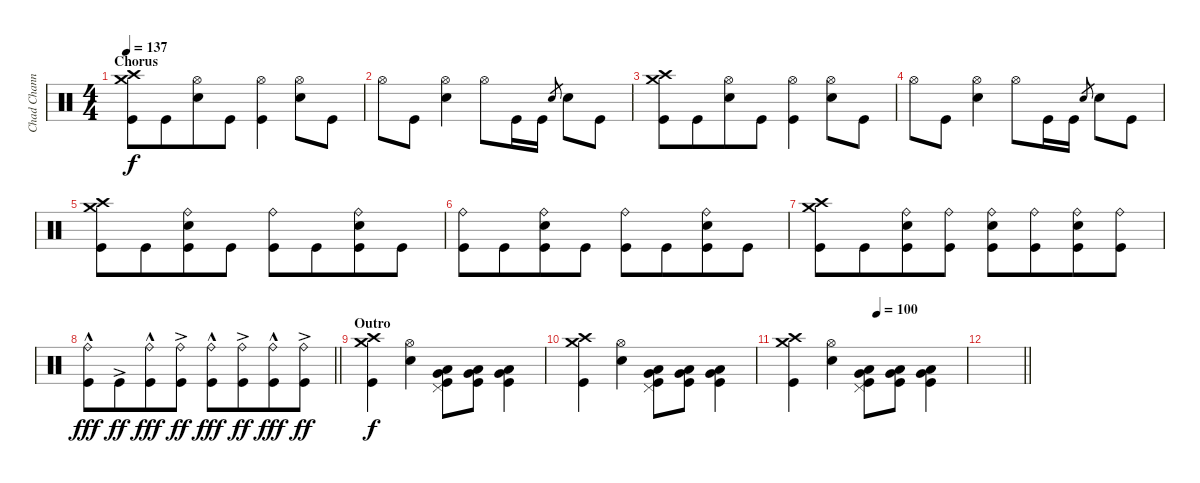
\track ("Chad Channing" "Chad Chann") {instrument percussion}
\staff {score}
\articulation defaults
\ts (4 4)
\section ("" "Chorus")
\tempo 137
\clef neutral
\ks c
("Crash high (hit)" "Crash medium (hit)" "Kick (hit)").8{dy f} "Kick (hit)".8{beam merge} ("Hi-Hat (open)" "Snare (hit) 2").8 "Kick (hit)".8 ("Hi-Hat (open)" "Kick (hit)").4 ("Hi-Hat (open)" "Snare (hit) 2").8 "Kick (hit)".8 |
"Hi-Hat (open)".8 "Kick (hit)".8 ("Hi-Hat (open)" "Snare (hit) 2").4 "Hi-Hat (open)".8 "Kick (hit)".16 "Kick (hit)".16 "Snare (hit) 2".8{gr} "Snare (hit) 2".8{beam Down} "Kick (hit)".8{beam Down} |
("Crash high (hit)" "Crash medium (hit)" "Kick (hit)").8 "Kick (hit)".8{beam merge} ("Hi-Hat (open)" "Snare (hit) 2").8 "Kick (hit)".8 ("Hi-Hat (open)" "Kick (hit)").4 ("Hi-Hat (open)" "Snare (hit) 2").8 "Kick (hit)".8 |
"Hi-Hat (open)".8 "Kick (hit)".8 ("Hi-Hat (open)" "Snare (hit) 2").4 "Hi-Hat (open)".8 "Kick (hit)".16 "Kick (hit)".16 "Snare (hit) 2".8{gr} "Snare (hit) 2".8{beam Down} "Kick (hit)".8{beam Down} |
("Crash medium (hit)" "Crash high (hit)" "Kick (hit)").8 "Kick (hit)".8{beam merge} ("Ride (bell)" "Snare (hit) 2" "Kick (hit)").8 "Kick (hit)".8 ("Ride (bell)" "Kick (hit)").8 "Kick (hit)".8{beam merge} ("Ride (bell)" "Snare (hit) 2" "Kick (hit)").8 "Kick (hit)".8 |
("Ride (bell)" "Kick (hit)").8 "Kick (hit)".8{beam merge} ("Ride (bell)" "Snare (hit) 2" "Kick (hit)").8 "Kick (hit)".8 ("Ride (bell)" "Kick (hit)").8 "Kick (hit)".8{beam merge} ("Ride (bell)" "Snare (hit) 2" "Kick (hit)").8 "Kick (hit)".8 |
("Crash medium (hit)" "Crash high (hit)" "Kick (hit)").8 "Kick (hit)".8{beam merge} ("Ride (bell)" "Snare (hit) 2" "Kick (hit)").8 ("Ride (bell)" "Kick (hit)").8 ("Ride (bell)" "Snare (hit) 2" "Kick (hit)").8 ("Ride (bell)" "Kick (hit)").8{beam merge} ("Ride (bell)" "Snare (hit) 2" "Kick (hit)").8 ("Ride (bell)" "Kick (hit)").8 |
\barLineRight lightlight
("Ride (bell)" "Kick (hit)"{hac}).8{dy fff} "Kick (hit)"{ac}.8{dy ff beam merge} ("Ride (bell)" "Kick (hit)"{hac}).8{dy fff} ("Ride (bell)" "Kick (hit)"{ac}).8{dy ff} ("Ride (bell)" "Kick (hit)"{hac}).8{dy fff} ("Ride (bell)" "Kick (hit)"{ac}).8{dy ff beam merge} ("Ride (bell)" "Kick (hit)"{hac}).8{dy fff} ("Ride (bell)" "Kick (hit)"{ac}).8{dy ff} |
\section ("" "Outro")
("Crash medium (hit)" "Crash high (hit)" "Kick (hit)").4{dy f} ("Hi-Hat (open)" "Snare (hit) 2").4 ("Pedal Hi-Hat (hit)" "Very Low Tom (hit)" "Low Floor Tom (hit)" "Kick (hit)").8{beam Down} ("Very Low Tom (hit)" "Low Floor Tom (hit)" "Kick (hit)").8{beam Down} ("Very Low Tom (hit)" "Low Floor Tom (hit)" "Kick (hit)").4{beam Down} |
("Crash medium (hit)" "Crash high (hit)" "Kick (hit)").4 ("Hi-Hat (open)" "Snare (hit) 2").4 ("Pedal Hi-Hat (hit)" "Very Low Tom (hit)" "Low Floor Tom (hit)" "Kick (hit)").8{beam Down} ("Very Low Tom (hit)" "Low Floor Tom (hit)" "Kick (hit)").8{beam Down} ("Very Low Tom (hit)" "Low Floor Tom (hit)" "Kick (hit)").4{beam Down} |
\tempo (100 0.5)
("Crash medium (hit)" "Crash high (hit)" "Kick (hit)").4 ("Hi-Hat (open)" "Snare (hit) 2").4 ("Pedal Hi-Hat (hit)" "Very Low Tom (hit)" "Low Floor Tom (hit)" "Kick (hit)").8{beam Down} ("Very Low Tom (hit)" "Low Floor Tom (hit)" "Kick (hit)").8{beam Down} ("Very Low Tom (hit)" "Low Floor Tom (hit)" "Kick (hit)").4{beam Down} |
\barLineRight lightlight
